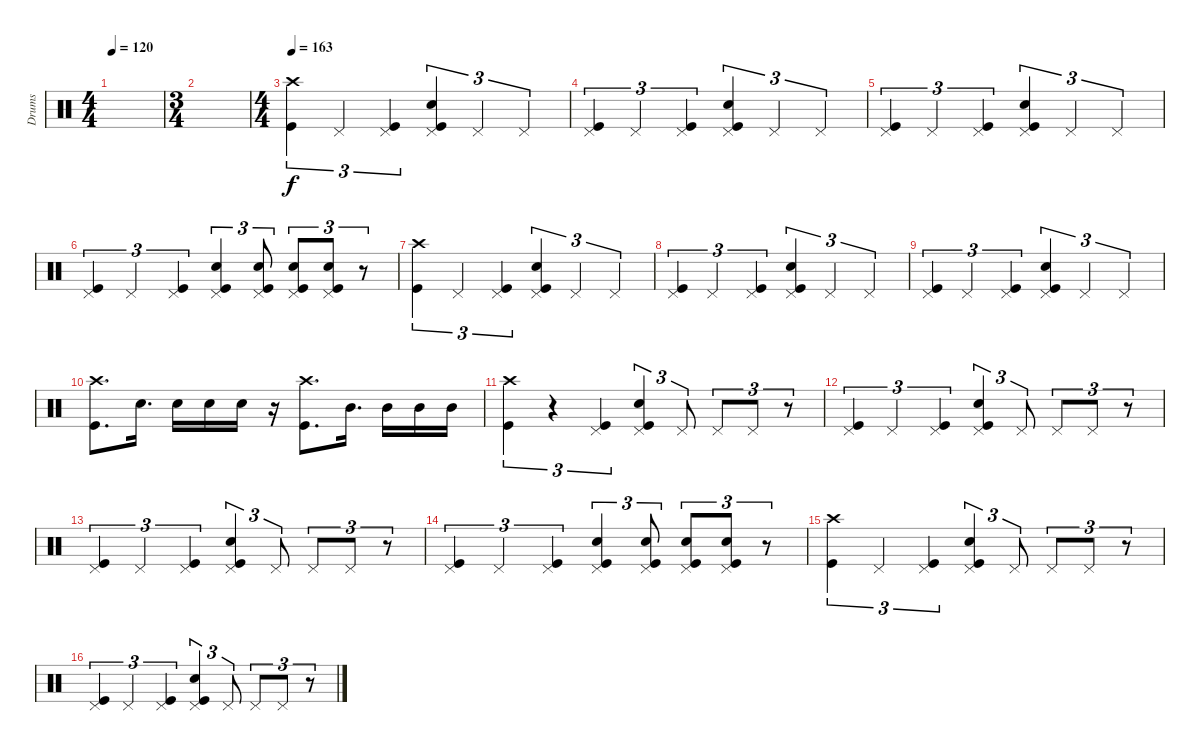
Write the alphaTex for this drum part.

\track ("Drums" "Drums") {instrument percussion}
\staff {score}
\articulation defaults
\ts (4 4)
\tempo 120
\clef neutral
\ks c
|
\ts (3 4)
|
\ts (4 4)
\tempo 163
("Crash high (hit)" "Kick (hit)").4{tu (3 2)} "Pedal Hi-Hat (hit)".4{tu (3 2)} ("Pedal Hi-Hat (hit)" "Kick (hit)").4{tu (3 2)} ("Pedal Hi-Hat (hit)" "Snare (hit) 2" "Kick (hit)").4{tu (3 2)} "Pedal Hi-Hat (hit)".4{tu (3 2)} "Pedal Hi-Hat (hit)".4{tu (3 2)} |
("Pedal Hi-Hat (hit)" "Kick (hit)").4{tu (3 2)} "Pedal Hi-Hat (hit)".4{tu (3 2)} ("Pedal Hi-Hat (hit)" "Kick (hit)").4{tu (3 2)} ("Pedal Hi-Hat (hit)" "Snare (hit) 2" "Kick (hit)").4{tu (3 2)} "Pedal Hi-Hat (hit)".4{tu (3 2)} "Pedal Hi-Hat (hit)".4{tu (3 2)} |
("Pedal Hi-Hat (hit)" "Kick (hit)").4{tu (3 2)} "Pedal Hi-Hat (hit)".4{tu (3 2)} ("Pedal Hi-Hat (hit)" "Kick (hit)").4{tu (3 2)} ("Pedal Hi-Hat (hit)" "Snare (hit) 2" "Kick (hit)").4{tu (3 2)} "Pedal Hi-Hat (hit)".4{tu (3 2)} "Pedal Hi-Hat (hit)".4{tu (3 2)} |
("Pedal Hi-Hat (hit)" "Kick (hit)").4{tu (3 2)} "Pedal Hi-Hat (hit)".4{tu (3 2)} ("Pedal Hi-Hat (hit)" "Kick (hit)").4{tu (3 2)} ("Pedal Hi-Hat (hit)" "Snare (hit) 2" "Kick (hit)").4{tu (3 2)} ("Pedal Hi-Hat (hit)" "Snare (hit) 2" "Kick (hit)").8{tu (3 2)} ("Pedal Hi-Hat (hit)" "Snare (hit) 2" "Kick (hit)").8{tu (3 2)} ("Pedal Hi-Hat (hit)" "Snare (hit) 2" "Kick (hit)").8{tu (3 2)} r.8{tu (3 2)} |
("Crash high (hit)" "Kick (hit)").4{tu (3 2)} "Pedal Hi-Hat (hit)".4{tu (3 2)} ("Pedal Hi-Hat (hit)" "Kick (hit)").4{tu (3 2)} ("Pedal Hi-Hat (hit)" "Snare (hit) 2" "Kick (hit)").4{tu (3 2)} "Pedal Hi-Hat (hit)".4{tu (3 2)} "Pedal Hi-Hat (hit)".4{tu (3 2)} |
("Pedal Hi-Hat (hit)" "Kick (hit)").4{tu (3 2)} "Pedal Hi-Hat (hit)".4{tu (3 2)} ("Pedal Hi-Hat (hit)" "Kick (hit)").4{tu (3 2)} ("Pedal Hi-Hat (hit)" "Snare (hit) 2" "Kick (hit)").4{tu (3 2)} "Pedal Hi-Hat (hit)".4{tu (3 2)} "Pedal Hi-Hat (hit)".4{tu (3 2)} |
("Pedal Hi-Hat (hit)" "Kick (hit)").4{tu (3 2)} "Pedal Hi-Hat (hit)".4{tu (3 2)} ("Pedal Hi-Hat (hit)" "Kick (hit)").4{tu (3 2)} ("Pedal Hi-Hat (hit)" "Snare (hit) 2" "Kick (hit)").4{tu (3 2)} "Pedal Hi-Hat (hit)".4{tu (3 2)} "Pedal Hi-Hat (hit)".4{tu (3 2)} |
("Crash high (hit)" "Kick (hit)").8{d} "Snare (hit) 2".16{d} "Snare (hit) 2".16 "Snare (hit) 2".16 "Snare (hit) 2".16 r.16 ("Crash high (hit)" "Kick (hit)").8{d} "Mid Tom (hit)".16{d} "Mid Tom (hit)".16 "Mid Tom (hit)".16 "Mid Tom (hit)".16 |
("Crash high (hit)" "Kick (hit)").4{tu (3 2)} r.4{tu (3 2)} ("Pedal Hi-Hat (hit)" "Kick (hit)").4{tu (3 2)} ("Pedal Hi-Hat (hit)" "Snare (hit) 2" "Kick (hit)").4{tu (3 2)} "Pedal Hi-Hat (hit)".8{tu (3 2)} "Pedal Hi-Hat (hit)".8{tu (3 2)} "Pedal Hi-Hat (hit)".8{tu (3 2)} r.8{tu (3 2)} |
("Pedal Hi-Hat (hit)" "Kick (hit)").4{tu (3 2)} "Pedal Hi-Hat (hit)".4{tu (3 2)} ("Pedal Hi-Hat (hit)" "Kick (hit)").4{tu (3 2)} ("Pedal Hi-Hat (hit)" "Snare (hit) 2" "Kick (hit)").4{tu (3 2)} "Pedal Hi-Hat (hit)".8{tu (3 2)} "Pedal Hi-Hat (hit)".8{tu (3 2)} "Pedal Hi-Hat (hit)".8{tu (3 2)} r.8{tu (3 2)} |
("Pedal Hi-Hat (hit)" "Kick (hit)").4{tu (3 2)} "Pedal Hi-Hat (hit)".4{tu (3 2)} ("Pedal Hi-Hat (hit)" "Kick (hit)").4{tu (3 2)} ("Pedal Hi-Hat (hit)" "Snare (hit) 2" "Kick (hit)").4{tu (3 2)} "Pedal Hi-Hat (hit)".8{tu (3 2)} "Pedal Hi-Hat (hit)".8{tu (3 2)} "Pedal Hi-Hat (hit)".8{tu (3 2)} r.8{tu (3 2)} |
("Pedal Hi-Hat (hit)" "Kick (hit)").4{tu (3 2)} "Pedal Hi-Hat (hit)".4{tu (3 2)} ("Pedal Hi-Hat (hit)" "Kick (hit)").4{tu (3 2)} ("Pedal Hi-Hat (hit)" "Snare (hit) 2" "Kick (hit)").4{tu (3 2)} ("Pedal Hi-Hat (hit)" "Snare (hit) 2" "Kick (hit)").8{tu (3 2)} ("Pedal Hi-Hat (hit)" "Snare (hit) 2" "Kick (hit)").8{tu (3 2)} ("Pedal Hi-Hat (hit)" "Snare (hit) 2" "Kick (hit)").8{tu (3 2)} r.8{tu (3 2)} |
("Crash high (hit)" "Kick (hit)").4{tu (3 2)} "Pedal Hi-Hat (hit)".4{tu (3 2)} ("Pedal Hi-Hat (hit)" "Kick (hit)").4{tu (3 2)} ("Pedal Hi-Hat (hit)" "Snare (hit) 2" "Kick (hit)").4{tu (3 2)} "Pedal Hi-Hat (hit)".8{tu (3 2)} "Pedal Hi-Hat (hit)".8{tu (3 2)} "Pedal Hi-Hat (hit)".8{tu (3 2)} r.8{tu (3 2)} |
("Pedal Hi-Hat (hit)" "Kick (hit)").4{tu (3 2)} "Pedal Hi-Hat (hit)".4{tu (3 2)} ("Pedal Hi-Hat (hit)" "Kick (hit)").4{tu (3 2)} ("Pedal Hi-Hat (hit)" "Snare (hit) 2" "Kick (hit)").4{tu (3 2)} "Pedal Hi-Hat (hit)".8{tu (3 2)} "Pedal Hi-Hat (hit)".8{tu (3 2)} "Pedal Hi-Hat (hit)".8{tu (3 2)} r.8{tu (3 2)}
